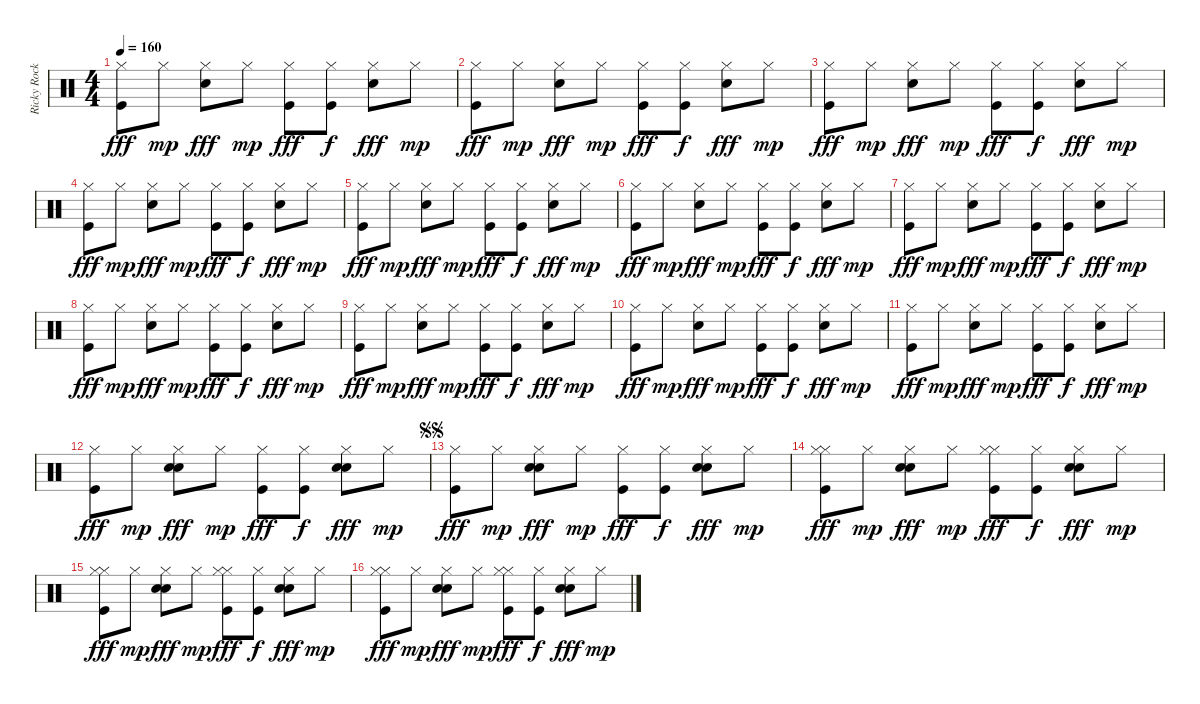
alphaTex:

\track ("Ricky Rockett" "Ricky Rock") {instrument percussion}
\staff {score}
\articulation defaults
\ts (4 4)
\tempo 160
\clef neutral
\ks c
("Hi-Hat (closed)" "Kick (hit)").8{dy fff} "Hi-Hat (closed)".8{dy mp} ("Snare (hit) 2" "Hi-Hat (closed)").8{dy fff} "Hi-Hat (closed)".8{dy mp} ("Hi-Hat (closed)" "Kick (hit)").8{dy fff} ("Hi-Hat (closed)" "Kick (hit)").8{dy f} ("Snare (hit) 2" "Hi-Hat (closed)").8{dy fff} "Hi-Hat (closed)".8{dy mp} |
("Hi-Hat (closed)" "Kick (hit)").8{dy fff} "Hi-Hat (closed)".8{dy mp} ("Snare (hit) 2" "Hi-Hat (closed)").8{dy fff} "Hi-Hat (closed)".8{dy mp} ("Hi-Hat (closed)" "Kick (hit)").8{dy fff} ("Hi-Hat (closed)" "Kick (hit)").8{dy f} ("Snare (hit) 2" "Hi-Hat (closed)").8{dy fff} "Hi-Hat (closed)".8{dy mp} |
("Hi-Hat (closed)" "Kick (hit)").8{dy fff} "Hi-Hat (closed)".8{dy mp} ("Snare (hit) 2" "Hi-Hat (closed)").8{dy fff} "Hi-Hat (closed)".8{dy mp} ("Hi-Hat (closed)" "Kick (hit)").8{dy fff} ("Hi-Hat (closed)" "Kick (hit)").8{dy f} ("Snare (hit) 2" "Hi-Hat (closed)").8{dy fff} "Hi-Hat (closed)".8{dy mp} |
("Hi-Hat (closed)" "Kick (hit)").8{dy fff} "Hi-Hat (closed)".8{dy mp} ("Snare (hit) 2" "Hi-Hat (closed)").8{dy fff} "Hi-Hat (closed)".8{dy mp} ("Hi-Hat (closed)" "Kick (hit)").8{dy fff} ("Hi-Hat (closed)" "Kick (hit)").8{dy f} ("Snare (hit) 2" "Hi-Hat (closed)").8{dy fff} "Hi-Hat (closed)".8{dy mp} |
("Hi-Hat (closed)" "Kick (hit)").8{dy fff} "Hi-Hat (closed)".8{dy mp} ("Snare (hit) 2" "Hi-Hat (closed)").8{dy fff} "Hi-Hat (closed)".8{dy mp} ("Hi-Hat (closed)" "Kick (hit)").8{dy fff} ("Hi-Hat (closed)" "Kick (hit)").8{dy f} ("Snare (hit) 2" "Hi-Hat (closed)").8{dy fff} "Hi-Hat (closed)".8{dy mp} |
("Hi-Hat (closed)" "Kick (hit)").8{dy fff} "Hi-Hat (closed)".8{dy mp} ("Snare (hit) 2" "Hi-Hat (closed)").8{dy fff} "Hi-Hat (closed)".8{dy mp} ("Hi-Hat (closed)" "Kick (hit)").8{dy fff} ("Hi-Hat (closed)" "Kick (hit)").8{dy f} ("Snare (hit) 2" "Hi-Hat (closed)").8{dy fff} "Hi-Hat (closed)".8{dy mp} |
("Hi-Hat (closed)" "Kick (hit)").8{dy fff} "Hi-Hat (closed)".8{dy mp} ("Snare (hit) 2" "Hi-Hat (closed)").8{dy fff} "Hi-Hat (closed)".8{dy mp} ("Hi-Hat (closed)" "Kick (hit)").8{dy fff} ("Hi-Hat (closed)" "Kick (hit)").8{dy f} ("Snare (hit) 2" "Hi-Hat (closed)").8{dy fff} "Hi-Hat (closed)".8{dy mp} |
("Hi-Hat (closed)" "Kick (hit)").8{dy fff} "Hi-Hat (closed)".8{dy mp} ("Snare (hit) 2" "Hi-Hat (closed)").8{dy fff} "Hi-Hat (closed)".8{dy mp} ("Hi-Hat (closed)" "Kick (hit)").8{dy fff} ("Hi-Hat (closed)" "Kick (hit)").8{dy f} ("Snare (hit) 2" "Hi-Hat (closed)").8{dy fff} "Hi-Hat (closed)".8{dy mp} |
("Hi-Hat (closed)" "Kick (hit)").8{dy fff} "Hi-Hat (closed)".8{dy mp} ("Snare (hit) 2" "Hi-Hat (closed)").8{dy fff} "Hi-Hat (closed)".8{dy mp} ("Hi-Hat (closed)" "Kick (hit)").8{dy fff} ("Hi-Hat (closed)" "Kick (hit)").8{dy f} ("Snare (hit) 2" "Hi-Hat (closed)").8{dy fff} "Hi-Hat (closed)".8{dy mp} |
("Hi-Hat (closed)" "Kick (hit)").8{dy fff} "Hi-Hat (closed)".8{dy mp} ("Snare (hit) 2" "Hi-Hat (closed)").8{dy fff} "Hi-Hat (closed)".8{dy mp} ("Hi-Hat (closed)" "Kick (hit)").8{dy fff} ("Hi-Hat (closed)" "Kick (hit)").8{dy f} ("Snare (hit) 2" "Hi-Hat (closed)").8{dy fff} "Hi-Hat (closed)".8{dy mp} |
("Hi-Hat (closed)" "Kick (hit)").8{dy fff} "Hi-Hat (closed)".8{dy mp} ("Snare (hit) 2" "Hi-Hat (closed)").8{dy fff} "Hi-Hat (closed)".8{dy mp} ("Hi-Hat (closed)" "Kick (hit)").8{dy fff} ("Hi-Hat (closed)" "Kick (hit)").8{dy f} ("Snare (hit) 2" "Hi-Hat (closed)").8{dy fff} "Hi-Hat (closed)".8{dy mp} |
("Hi-Hat (closed)" "Kick (hit)").8{dy fff} "Hi-Hat (closed)".8{dy mp} ("Snare (hit) 2" "Hi-Hat (closed)" "Electric Snare (hit)").8{dy fff} "Hi-Hat (closed)".8{dy mp} ("Hi-Hat (closed)" "Kick (hit)").8{dy fff} ("Hi-Hat (closed)" "Kick (hit)").8{dy f} ("Snare (hit) 2" "Hi-Hat (closed)" "Electric Snare (hit)").8{dy fff} "Hi-Hat (closed)".8{dy mp} |
\jump segnosegno
("Hi-Hat (closed)" "Kick (hit)").8{dy fff} "Hi-Hat (closed)".8{dy mp} ("Snare (hit) 2" "Hi-Hat (closed)" "Electric Snare (hit)").8{dy fff} "Hi-Hat (closed)".8{dy mp} ("Hi-Hat (closed)" "Kick (hit)").8{dy fff} ("Hi-Hat (closed)" "Kick (hit)").8{dy f} ("Snare (hit) 2" "Hi-Hat (closed)" "Electric Snare (hit)").8{dy fff} "Hi-Hat (closed)".8{dy mp} |
("Hi-Hat (closed)" "Kick (hit)" "Hi-Hat (closed)").8{dy fff} "Hi-Hat (closed)".8{dy mp} ("Snare (hit) 2" "Hi-Hat (closed)" "Electric Snare (hit)").8{dy fff} "Hi-Hat (closed)".8{dy mp} ("Hi-Hat (closed)" "Kick (hit)" "Hi-Hat (closed)").8{dy fff} ("Hi-Hat (closed)" "Kick (hit)").8{dy f} ("Snare (hit) 2" "Hi-Hat (closed)" "Electric Snare (hit)").8{dy fff} "Hi-Hat (closed)".8{dy mp} |
("Hi-Hat (closed)" "Kick (hit)" "Hi-Hat (closed)").8{dy fff} "Hi-Hat (closed)".8{dy mp} ("Snare (hit) 2" "Hi-Hat (closed)" "Electric Snare (hit)").8{dy fff} "Hi-Hat (closed)".8{dy mp} ("Hi-Hat (closed)" "Kick (hit)" "Hi-Hat (closed)").8{dy fff} ("Hi-Hat (closed)" "Kick (hit)").8{dy f} ("Snare (hit) 2" "Hi-Hat (closed)" "Electric Snare (hit)").8{dy fff} "Hi-Hat (closed)".8{dy mp} |
("Hi-Hat (closed)" "Kick (hit)" "Hi-Hat (closed)").8{dy fff} "Hi-Hat (closed)".8{dy mp} ("Snare (hit) 2" "Hi-Hat (closed)" "Electric Snare (hit)").8{dy fff} "Hi-Hat (closed)".8{dy mp} ("Hi-Hat (closed)" "Kick (hit)" "Hi-Hat (closed)").8{dy fff} ("Hi-Hat (closed)" "Kick (hit)").8{dy f} ("Snare (hit) 2" "Hi-Hat (closed)" "Electric Snare (hit)").8{dy fff} "Hi-Hat (closed)".8{dy mp}
